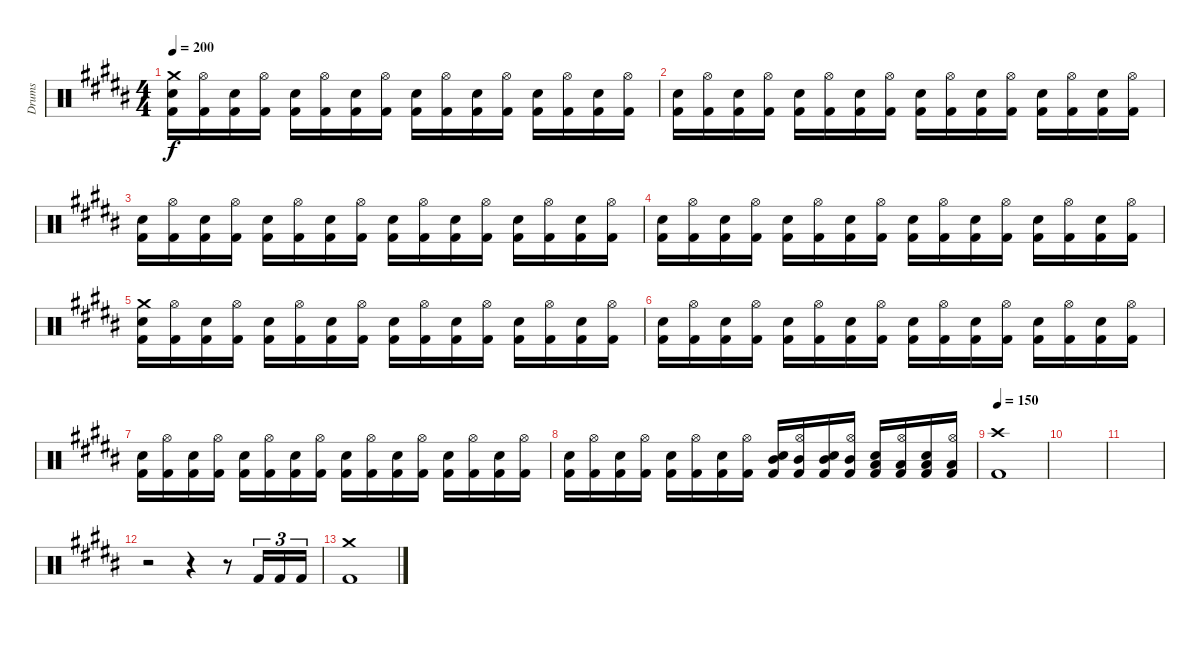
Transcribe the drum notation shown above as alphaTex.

\track ("Drums" "Drums") {instrument percussion}
\staff {score}
\articulation defaults
\ts (4 4)
\tempo 200
\clef neutral
\ks b
("Snare (hit) 2" "Crash medium (hit)" "Kick (hit) 2").16{dy f} ("Hi-Hat (open)" "Kick (hit) 2").16 ("Snare (hit) 2" "Kick (hit) 2").16 ("Hi-Hat (open)" "Kick (hit) 2").16 ("Snare (hit) 2" "Kick (hit) 2").16 ("Hi-Hat (open)" "Kick (hit) 2").16 ("Snare (hit) 2" "Kick (hit) 2").16 ("Hi-Hat (open)" "Kick (hit) 2").16 ("Snare (hit) 2" "Kick (hit) 2").16 ("Hi-Hat (open)" "Kick (hit) 2").16 ("Snare (hit) 2" "Kick (hit) 2").16 ("Hi-Hat (open)" "Kick (hit) 2").16 ("Snare (hit) 2" "Kick (hit) 2").16 ("Hi-Hat (open)" "Kick (hit) 2").16 ("Snare (hit) 2" "Kick (hit) 2").16 ("Hi-Hat (open)" "Kick (hit) 2").16 |
("Snare (hit) 2" "Kick (hit) 2").16 ("Hi-Hat (open)" "Kick (hit) 2").16 ("Snare (hit) 2" "Kick (hit) 2").16 ("Hi-Hat (open)" "Kick (hit) 2").16 ("Snare (hit) 2" "Kick (hit) 2").16 ("Hi-Hat (open)" "Kick (hit) 2").16 ("Snare (hit) 2" "Kick (hit) 2").16 ("Hi-Hat (open)" "Kick (hit) 2").16 ("Snare (hit) 2" "Kick (hit) 2").16 ("Hi-Hat (open)" "Kick (hit) 2").16 ("Snare (hit) 2" "Kick (hit) 2").16 ("Hi-Hat (open)" "Kick (hit) 2").16 ("Snare (hit) 2" "Kick (hit) 2").16 ("Hi-Hat (open)" "Kick (hit) 2").16 ("Snare (hit) 2" "Kick (hit) 2").16 ("Hi-Hat (open)" "Kick (hit) 2").16 |
("Snare (hit) 2" "Kick (hit) 2").16 ("Hi-Hat (open)" "Kick (hit) 2").16 ("Snare (hit) 2" "Kick (hit) 2").16 ("Hi-Hat (open)" "Kick (hit) 2").16 ("Snare (hit) 2" "Kick (hit) 2").16 ("Hi-Hat (open)" "Kick (hit) 2").16 ("Snare (hit) 2" "Kick (hit) 2").16 ("Hi-Hat (open)" "Kick (hit) 2").16 ("Snare (hit) 2" "Kick (hit) 2").16 ("Hi-Hat (open)" "Kick (hit) 2").16 ("Snare (hit) 2" "Kick (hit) 2").16 ("Hi-Hat (open)" "Kick (hit) 2").16 ("Snare (hit) 2" "Kick (hit) 2").16 ("Hi-Hat (open)" "Kick (hit) 2").16 ("Snare (hit) 2" "Kick (hit) 2").16 ("Hi-Hat (open)" "Kick (hit) 2").16 |
("Snare (hit) 2" "Kick (hit) 2").16 ("Hi-Hat (open)" "Kick (hit) 2").16 ("Snare (hit) 2" "Kick (hit) 2").16 ("Hi-Hat (open)" "Kick (hit) 2").16 ("Snare (hit) 2" "Kick (hit) 2").16 ("Hi-Hat (open)" "Kick (hit) 2").16 ("Snare (hit) 2" "Kick (hit) 2").16 ("Hi-Hat (open)" "Kick (hit) 2").16 ("Snare (hit) 2" "Kick (hit) 2").16 ("Hi-Hat (open)" "Kick (hit) 2").16 ("Snare (hit) 2" "Kick (hit) 2").16 ("Hi-Hat (open)" "Kick (hit) 2").16 ("Snare (hit) 2" "Kick (hit) 2").16 ("Hi-Hat (open)" "Kick (hit) 2").16 ("Snare (hit) 2" "Kick (hit) 2").16 ("Hi-Hat (open)" "Kick (hit) 2").16 |
("Snare (hit) 2" "Crash medium (hit)" "Kick (hit) 2").16 ("Hi-Hat (open)" "Kick (hit) 2").16 ("Snare (hit) 2" "Kick (hit) 2").16 ("Hi-Hat (open)" "Kick (hit) 2").16 ("Snare (hit) 2" "Kick (hit) 2").16 ("Hi-Hat (open)" "Kick (hit) 2").16 ("Snare (hit) 2" "Kick (hit) 2").16 ("Hi-Hat (open)" "Kick (hit) 2").16 ("Snare (hit) 2" "Kick (hit) 2").16 ("Hi-Hat (open)" "Kick (hit) 2").16 ("Snare (hit) 2" "Kick (hit) 2").16 ("Hi-Hat (open)" "Kick (hit) 2").16 ("Snare (hit) 2" "Kick (hit) 2").16 ("Hi-Hat (open)" "Kick (hit) 2").16 ("Snare (hit) 2" "Kick (hit) 2").16 ("Hi-Hat (open)" "Kick (hit) 2").16 |
("Snare (hit) 2" "Kick (hit) 2").16 ("Hi-Hat (open)" "Kick (hit) 2").16 ("Snare (hit) 2" "Kick (hit) 2").16 ("Hi-Hat (open)" "Kick (hit) 2").16 ("Snare (hit) 2" "Kick (hit) 2").16 ("Hi-Hat (open)" "Kick (hit) 2").16 ("Snare (hit) 2" "Kick (hit) 2").16 ("Hi-Hat (open)" "Kick (hit) 2").16 ("Snare (hit) 2" "Kick (hit) 2").16 ("Hi-Hat (open)" "Kick (hit) 2").16 ("Snare (hit) 2" "Kick (hit) 2").16 ("Hi-Hat (open)" "Kick (hit) 2").16 ("Snare (hit) 2" "Kick (hit) 2").16 ("Hi-Hat (open)" "Kick (hit) 2").16 ("Snare (hit) 2" "Kick (hit) 2").16 ("Hi-Hat (open)" "Kick (hit) 2").16 |
("Snare (hit) 2" "Kick (hit) 2").16 ("Hi-Hat (open)" "Kick (hit) 2").16 ("Snare (hit) 2" "Kick (hit) 2").16 ("Hi-Hat (open)" "Kick (hit) 2").16 ("Snare (hit) 2" "Kick (hit) 2").16 ("Hi-Hat (open)" "Kick (hit) 2").16 ("Snare (hit) 2" "Kick (hit) 2").16 ("Hi-Hat (open)" "Kick (hit) 2").16 ("Snare (hit) 2" "Kick (hit) 2").16 ("Hi-Hat (open)" "Kick (hit) 2").16 ("Snare (hit) 2" "Kick (hit) 2").16 ("Hi-Hat (open)" "Kick (hit) 2").16 ("Snare (hit) 2" "Kick (hit) 2").16 ("Hi-Hat (open)" "Kick (hit) 2").16 ("Snare (hit) 2" "Kick (hit) 2").16 ("Hi-Hat (open)" "Kick (hit) 2").16 |
("Snare (hit) 2" "Kick (hit) 2").16 ("Hi-Hat (open)" "Kick (hit) 2").16 ("Snare (hit) 2" "Kick (hit) 2").16 ("Hi-Hat (open)" "Kick (hit) 2").16 ("Snare (hit) 2" "Kick (hit) 2").16 ("Hi-Hat (open)" "Kick (hit) 2").16 ("Snare (hit) 2" "Kick (hit) 2").16 ("Hi-Hat (open)" "Kick (hit) 2").16 ("Snare (hit) 2" "Mid Tom (hit)" "Kick (hit) 2").16 ("Hi-Hat (open)" "Mid Tom (hit)" "Kick (hit) 2").16 ("Snare (hit) 2" "Mid Tom (hit)" "Kick (hit) 2").16 ("Hi-Hat (open)" "Mid Tom (hit)" "Kick (hit) 2").16 ("Snare (hit) 2" "Low Tom (hit)" "Kick (hit) 2").16 ("Hi-Hat (open)" "Low Tom (hit)" "Kick (hit) 2").16 ("Snare (hit) 2" "Low Tom (hit)" "Kick (hit) 2").16 ("Hi-Hat (open)" "Low Tom (hit)" "Kick (hit) 2").16 |
\tempo 150
("Kick (hit) 2" "Crash high (hit)").1 |
|
|
r.2 r.4 r.8 "Kick (hit) 2".16{tu (3 2)} "Kick (hit) 2".16{tu (3 2)} "Kick (hit) 2".16{tu (3 2)} |
("Kick (hit) 2" "Crash medium (hit)").1
